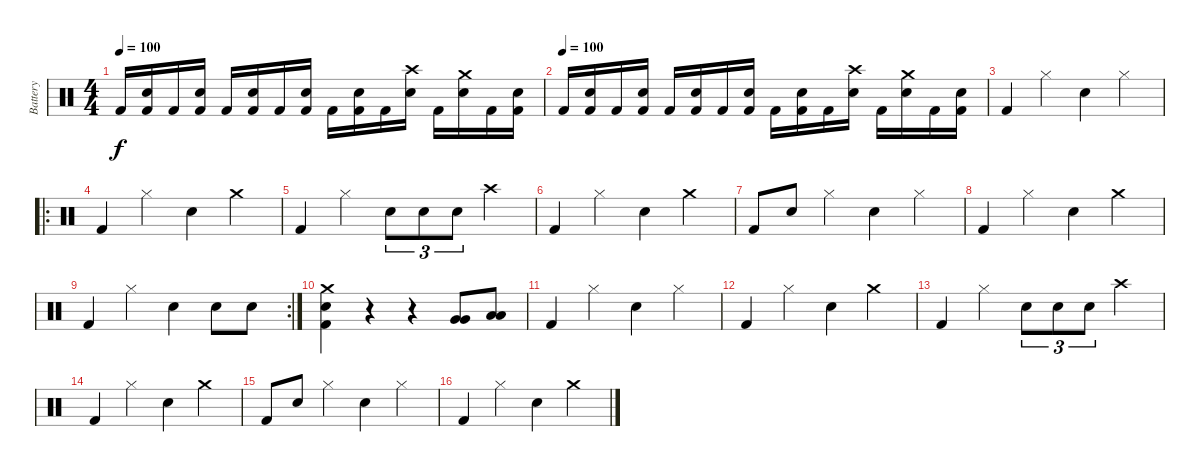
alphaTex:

\track ("Battery" "Battery") {instrument percussion}
\staff {score}
\articulation defaults
\ts (4 4)
\tempo 100
\clef neutral
\ks c "Kick (hit) 2".16{dy f}
("Snare (hit) 2" "Kick (hit) 2").16 "Kick (hit) 2".16 ("Snare (hit) 2" "Kick (hit) 2").16 "Kick (hit) 2".16 ("Snare (hit) 2" "Kick (hit) 2").16 "Kick (hit) 2".16 ("Snare (hit) 2" "Kick (hit) 2").16 "Kick (hit) 2".16 ("Snare (hit) 2" "Kick (hit) 2").16 "Kick (hit) 2".16 ("Snare (hit) 2" "Crash high (hit)").16 "Kick (hit) 2".16 ("Snare (hit) 2" "Crash medium (hit)").16 "Kick (hit) 2".16 ("Snare (hit) 2" "Kick (hit) 2").16 |
\tempo (100)
"Kick (hit) 2".16 ("Snare (hit) 2" "Kick (hit) 2").16 "Kick (hit) 2".16 ("Snare (hit) 2" "Kick (hit) 2").16 "Kick (hit) 2".16 ("Snare (hit) 2" "Kick (hit) 2").16 "Kick (hit) 2".16 ("Snare (hit) 2" "Kick (hit) 2").16 "Kick (hit) 2".16 ("Snare (hit) 2" "Kick (hit) 2").16 "Kick (hit) 2".16 ("Snare (hit) 2" "Crash high (hit)").16 "Kick (hit) 2".16 ("Snare (hit) 2" "Crash medium (hit)").16 "Kick (hit) 2".16 ("Snare (hit) 2" "Kick (hit) 2").16 |
"Kick (hit) 2".4 "Hi-Hat (closed)".4 "Snare (hit) 2".4 "Hi-Hat (closed)".4 |
\ro "Kick (hit) 2".4 "Hi-Hat (closed)".4 "Snare (hit) 2".4 "Crash medium (hit)".4
|
"Kick (hit) 2".4 "Hi-Hat (closed)".4 "Snare (hit) 2".8{tu (3 2)} "Snare (hit) 2".8{tu (3 2)} "Snare (hit) 2".8{tu (3 2)} "Crash high (hit)".4 |
"Kick (hit) 2".4 "Hi-Hat (closed)".4 "Snare (hit) 2".4 "Crash medium (hit)".4 |
"Kick (hit) 2".8 "Snare (hit) 2".8 "Hi-Hat (closed)".4 "Snare (hit) 2".4 "Hi-Hat (closed)".4 |
"Kick (hit) 2".4 "Hi-Hat (closed)".4 "Snare (hit) 2".4 "Crash medium (hit)".4 |
\rc 2 "Kick (hit) 2".4 "Hi-Hat (closed)".4 "Snare (hit) 2".4 "Snare (hit) 2".8 "Snare (hit) 2".8
|
("Kick (hit) 2" "Snare (hit) 2" "Crash medium (hit)").4 r.4 r.4 ("Very Low Tom (hit)" "Very Low Tom (hit)").8 ("Low Floor Tom (hit)" "Low Floor Tom (hit)").8 |
"Kick (hit) 2".4 "Hi-Hat (closed)".4 "Snare (hit) 2".4 "Hi-Hat (closed)".4 |
"Kick (hit) 2".4 "Hi-Hat (closed)".4 "Snare (hit) 2".4 "Crash medium (hit)".4 |
"Kick (hit) 2".4 "Hi-Hat (closed)".4 "Snare (hit) 2".8{tu (3 2)} "Snare (hit) 2".8{tu (3 2)} "Snare (hit) 2".8{tu (3 2)} "Crash high (hit)".4 |
"Kick (hit) 2".4 "Hi-Hat (closed)".4 "Snare (hit) 2".4 "Crash medium (hit)".4 |
"Kick (hit) 2".8 "Snare (hit) 2".8 "Hi-Hat (closed)".4 "Snare (hit) 2".4 "Hi-Hat (closed)".4 |
"Kick (hit) 2".4 "Hi-Hat (closed)".4 "Snare (hit) 2".4 "Crash medium (hit)".4
